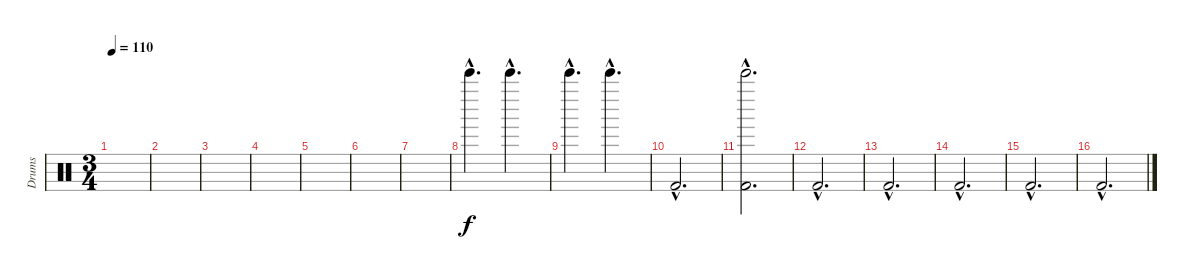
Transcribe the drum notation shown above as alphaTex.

\track ("Drums" "Drums") {instrument percussion}
\staff {score}
\articulation defaults
\ts (3 4)
\tempo 110
\clef neutral
\ks c
|
|
|
|
|
|
|
"Bell Tree (hit)"{hac}.4{d} "Bell Tree (hit)"{hac}.4{d} |
"Bell Tree (hit)"{hac}.4{d} "Bell Tree (hit)"{hac}.4{d} |
"Kick (hit) 2"{hac}.2{d} |
("Kick (hit) 2"{hac} "Bell Tree (hit)"{hac}).2{d} |
"Kick (hit) 2"{hac}.2{d} |
"Kick (hit) 2"{hac}.2{d} |
"Kick (hit) 2"{hac}.2{d} |
"Kick (hit) 2"{hac}.2{d} |
"Kick (hit) 2"{hac}.2{d}
